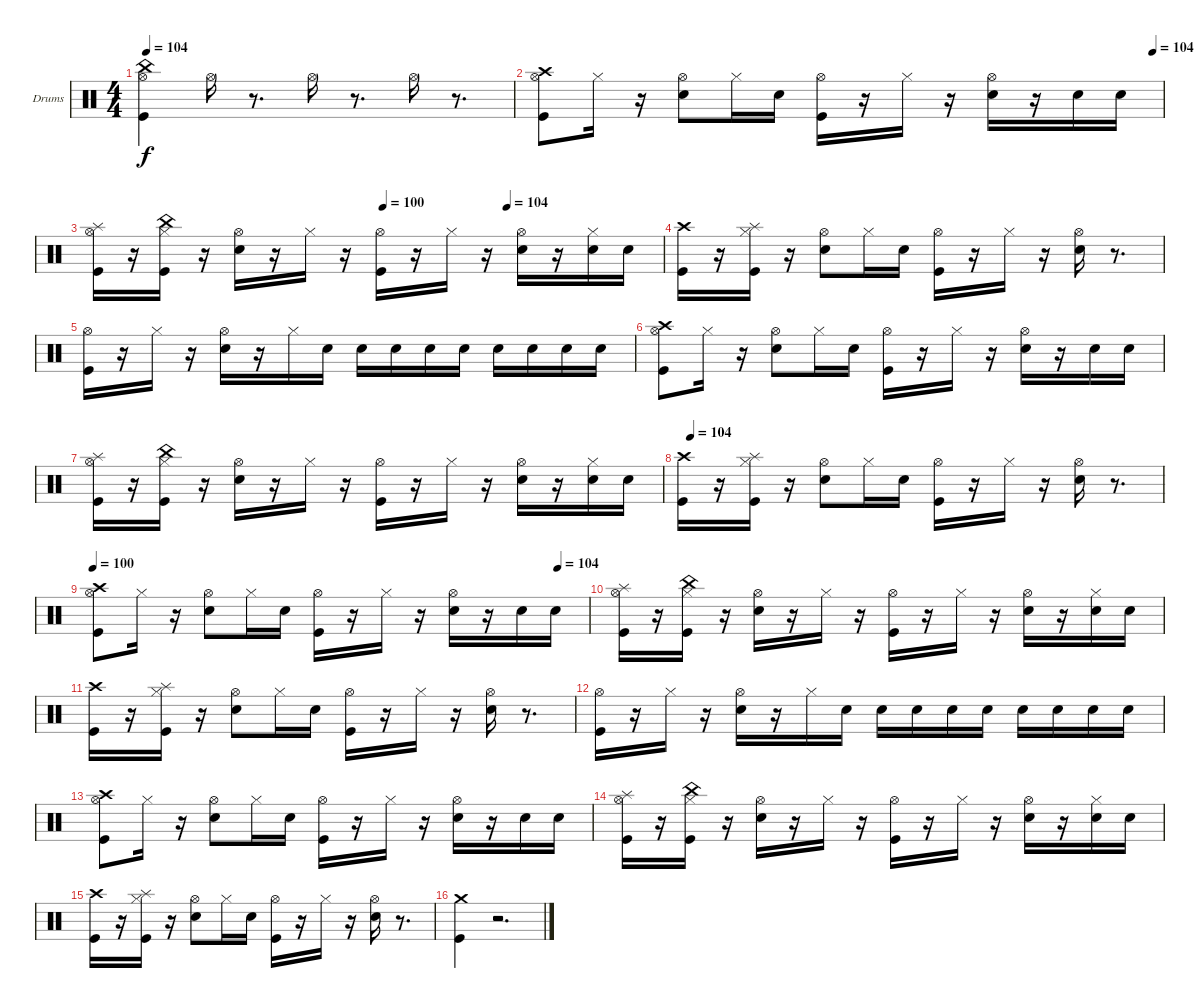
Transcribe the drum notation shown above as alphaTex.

\bracketExtendMode groupsimilarinstruments
\firstSystemTrackNameOrientation horizontal
\otherSystemsTrackNameOrientation horizontal
\track ("Нюта" "Drums") {instrument percussion}
\staff {score}
\articulation defaults
\ts (4 4)
\tempo 104
\clef neutral
\ks c
("China (hit)" "Hi-Hat (open)" "Kick (hit)").4{dy f} "Hi-Hat (open)".16 r.8{d} "Hi-Hat (open)".16 r.8{d} "Hi-Hat (open)".16 r.8{d} |
\tempo (104 0.984615)
("Hi-Hat (open)" "Crash high (hit)" "Kick (hit)").8 "Hi-Hat (closed)".16 r.16 ("Hi-Hat (open)" "Snare (hit) 2").8 "Hi-Hat (closed)".16 "Snare (hit) 2".16 ("Hi-Hat (open)" "Kick (hit)").16 r.16 "Hi-Hat (closed)".16 r.16 ("Hi-Hat (open)" "Snare (hit) 2").16 r.16 "Snare (hit) 2".16 "Snare (hit) 2".16 |
\tempo (100 0.510836)
\tempo (104 0.727554)
("Splash (hit)" "Hi-Hat (open)" "Kick (hit)").16 r.16 ("Kick (hit)" "China (hit)" "Hi-Hat (closed)").16 r.16 ("Snare (hit) 2" "Hi-Hat (open)").16 r.16 "Hi-Hat (closed)".16 r.16 ("Kick (hit)" "Hi-Hat (open)").16 r.16 "Hi-Hat (closed)".16 r.16 ("Snare (hit) 2" "Hi-Hat (open)").16 r.16 ("Snare (hit) 2" "Hi-Hat (closed)").16 "Snare (hit) 2".16 |
("Kick (hit)" "Crash high (hit)").16 r.16 ("Kick (hit)" "Splash (hit)" "Hi-Hat (closed)").16 r.16 ("Hi-Hat (open)" "Snare (hit) 2").8 "Hi-Hat (closed)".16 "Snare (hit) 2".16 ("Hi-Hat (open)" "Kick (hit)").16 r.16 "Hi-Hat (closed)".16 r.16 ("Hi-Hat (open)" "Snare (hit) 2").16 r.8{d} |
("Hi-Hat (open)" "Kick (hit)").16 r.16 "Hi-Hat (closed)".16 r.16 ("Snare (hit) 2" "Hi-Hat (open)").16 r.16 "Hi-Hat (closed)".16 "Snare (hit) 2".16 "Snare (hit) 2".16 "Snare (hit) 2".16 "Snare (hit) 2".16 "Snare (hit) 2".16 "Snare (hit) 2".16 "Snare (hit) 2".16 "Snare (hit) 2".16 "Snare (hit) 2".16 |
("Hi-Hat (open)" "Crash high (hit)" "Kick (hit)").8 "Hi-Hat (closed)".16 r.16 ("Hi-Hat (open)" "Snare (hit) 2").8 "Hi-Hat (closed)".16 "Snare (hit) 2".16 ("Hi-Hat (open)" "Kick (hit)").16 r.16 "Hi-Hat (closed)".16 r.16 ("Hi-Hat (open)" "Snare (hit) 2").16 r.16 "Snare (hit) 2".16 "Snare (hit) 2".16 |
("Splash (hit)" "Hi-Hat (open)" "Kick (hit)").16 r.16 ("Kick (hit)" "China (hit)" "Hi-Hat (closed)").16 r.16 ("Snare (hit) 2" "Hi-Hat (open)").16 r.16 "Hi-Hat (closed)".16 r.16 ("Kick (hit)" "Hi-Hat (open)").16 r.16 "Hi-Hat (closed)".16 r.16 ("Snare (hit) 2" "Hi-Hat (open)").16 r.16 ("Snare (hit) 2" "Hi-Hat (closed)").16 "Snare (hit) 2".16 |
\tempo (104 0.0154799)
("Kick (hit)" "Crash high (hit)").16 r.16 ("Kick (hit)" "Splash (hit)" "Hi-Hat (closed)").16 r.16 ("Hi-Hat (open)" "Snare (hit) 2").8 "Hi-Hat (closed)".16 "Snare (hit) 2".16 ("Hi-Hat (open)" "Kick (hit)").16 r.16 "Hi-Hat (closed)".16 r.16 ("Hi-Hat (open)" "Snare (hit) 2").16 r.8{d} |
\tempo 100
\tempo (104 0.938462)
("Hi-Hat (open)" "Crash high (hit)" "Kick (hit)").8 "Hi-Hat (closed)".16 r.16 ("Hi-Hat (open)" "Snare (hit) 2").8 "Hi-Hat (closed)".16 "Snare (hit) 2".16 ("Hi-Hat (open)" "Kick (hit)").16 r.16 "Hi-Hat (closed)".16 r.16 ("Hi-Hat (open)" "Snare (hit) 2").16 r.16 "Snare (hit) 2".16 "Snare (hit) 2".16 |
("Splash (hit)" "Hi-Hat (open)" "Kick (hit)").16 r.16 ("Kick (hit)" "China (hit)" "Hi-Hat (closed)").16 r.16 ("Snare (hit) 2" "Hi-Hat (open)").16 r.16 "Hi-Hat (closed)".16 r.16 ("Kick (hit)" "Hi-Hat (open)").16 r.16 "Hi-Hat (closed)".16 r.16 ("Snare (hit) 2" "Hi-Hat (open)").16 r.16 ("Snare (hit) 2" "Hi-Hat (closed)").16 "Snare (hit) 2".16 |
("Kick (hit)" "Crash high (hit)").16 r.16 ("Kick (hit)" "Splash (hit)" "Hi-Hat (closed)").16 r.16 ("Hi-Hat (open)" "Snare (hit) 2").8 "Hi-Hat (closed)".16 "Snare (hit) 2".16 ("Hi-Hat (open)" "Kick (hit)").16 r.16 "Hi-Hat (closed)".16 r.16 ("Hi-Hat (open)" "Snare (hit) 2").16 r.8{d} |
("Hi-Hat (open)" "Kick (hit)").16 r.16 "Hi-Hat (closed)".16 r.16 ("Snare (hit) 2" "Hi-Hat (open)").16 r.16 "Hi-Hat (closed)".16 "Snare (hit) 2".16 "Snare (hit) 2".16 "Snare (hit) 2".16 "Snare (hit) 2".16 "Snare (hit) 2".16 "Snare (hit) 2".16 "Snare (hit) 2".16 "Snare (hit) 2".16 "Snare (hit) 2".16 |
("Hi-Hat (open)" "Crash high (hit)" "Kick (hit)").8 "Hi-Hat (closed)".16 r.16 ("Hi-Hat (open)" "Snare (hit) 2").8 "Hi-Hat (closed)".16 "Snare (hit) 2".16 ("Hi-Hat (open)" "Kick (hit)").16 r.16 "Hi-Hat (closed)".16 r.16 ("Hi-Hat (open)" "Snare (hit) 2").16 r.16 "Snare (hit) 2".16 "Snare (hit) 2".16 |
("Splash (hit)" "Hi-Hat (open)" "Kick (hit)").16 r.16 ("Kick (hit)" "China (hit)" "Hi-Hat (closed)").16 r.16 ("Snare (hit) 2" "Hi-Hat (open)").16 r.16 "Hi-Hat (closed)".16 r.16 ("Kick (hit)" "Hi-Hat (open)").16 r.16 "Hi-Hat (closed)".16 r.16 ("Snare (hit) 2" "Hi-Hat (open)").16 r.16 ("Snare (hit) 2" "Hi-Hat (closed)").16 "Snare (hit) 2".16 |
("Kick (hit)" "Crash high (hit)").16 r.16 ("Kick (hit)" "Splash (hit)" "Hi-Hat (closed)").16 r.16 ("Hi-Hat (open)" "Snare (hit) 2").8 "Hi-Hat (closed)".16 "Snare (hit) 2".16 ("Hi-Hat (open)" "Kick (hit)").16 r.16 "Hi-Hat (closed)".16 r.16 ("Hi-Hat (open)" "Snare (hit) 2").16 r.8{d} |
("Crash medium (hit)" "Kick (hit)").4 r.2{d}
